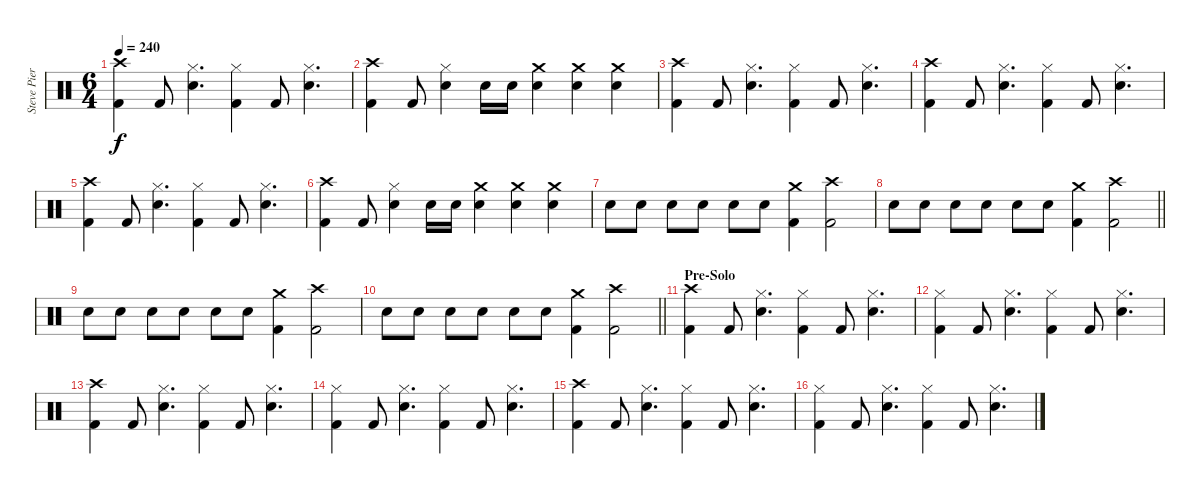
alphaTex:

\track ("Steve Pierce" "Steve Pier") {instrument percussion}
\staff {score}
\articulation defaults
\ts (6 4)
\tempo 240
\clef neutral
\ks c
("Crash high (hit)" "Kick (hit) 2").4{dy f} "Kick (hit) 2".8 ("Hi-Hat (closed)" "Snare (hit) 2").4{d} ("Hi-Hat (closed)" "Kick (hit) 2").4 "Kick (hit) 2".8 ("Hi-Hat (closed)" "Snare (hit) 2").4{d} |
("Crash high (hit)" "Kick (hit) 2").4 "Kick (hit) 2".8 ("Hi-Hat (closed)" "Snare (hit) 2").4 "Snare (hit) 2".16 "Snare (hit) 2".16 ("Crash medium (hit)" "Snare (hit) 2").4 ("Crash medium (hit)" "Snare (hit) 2").4 ("Crash medium (hit)" "Snare (hit) 2").4 |
("Crash high (hit)" "Kick (hit) 2").4 "Kick (hit) 2".8 ("Hi-Hat (closed)" "Snare (hit) 2").4{d} ("Hi-Hat (closed)" "Kick (hit) 2").4 "Kick (hit) 2".8 ("Hi-Hat (closed)" "Snare (hit) 2").4{d} |
("Crash high (hit)" "Kick (hit) 2").4 "Kick (hit) 2".8 ("Hi-Hat (closed)" "Snare (hit) 2").4{d} ("Hi-Hat (closed)" "Kick (hit) 2").4 "Kick (hit) 2".8 ("Hi-Hat (closed)" "Snare (hit) 2").4{d} |
("Crash high (hit)" "Kick (hit) 2").4 "Kick (hit) 2".8 ("Hi-Hat (closed)" "Snare (hit) 2").4{d} ("Hi-Hat (closed)" "Kick (hit) 2").4 "Kick (hit) 2".8 ("Hi-Hat (closed)" "Snare (hit) 2").4{d} |
("Crash high (hit)" "Kick (hit) 2").4 "Kick (hit) 2".8 ("Hi-Hat (closed)" "Snare (hit) 2").4 "Snare (hit) 2".16 "Snare (hit) 2".16 ("Crash medium (hit)" "Snare (hit) 2").4 ("Crash medium (hit)" "Snare (hit) 2").4 ("Crash medium (hit)" "Snare (hit) 2").4 |
"Snare (hit) 2".8 "Snare (hit) 2".8 "Snare (hit) 2".8 "Snare (hit) 2".8 "Snare (hit) 2".8 "Snare (hit) 2".8 ("Crash medium (hit)" "Kick (hit) 2").4 ("Crash high (hit)" "Kick (hit) 2").2 |
\barLineRight lightlight "Snare (hit) 2".8 "Snare (hit) 2".8 "Snare (hit) 2".8 "Snare (hit) 2".8 "Snare (hit) 2".8 "Snare (hit) 2".8
("Crash medium (hit)" "Kick (hit) 2").4 ("Crash high (hit)" "Kick (hit) 2").2 |
"Snare (hit) 2".8 "Snare (hit) 2".8 "Snare (hit) 2".8 "Snare (hit) 2".8 "Snare (hit) 2".8 "Snare (hit) 2".8 ("Crash medium (hit)" "Kick (hit) 2").4 ("Crash high (hit)" "Kick (hit) 2").2 |
\barLineRight lightlight "Snare (hit) 2".8 "Snare (hit) 2".8 "Snare (hit) 2".8 "Snare (hit) 2".8 "Snare (hit) 2".8 "Snare (hit) 2".8
("Crash medium (hit)" "Kick (hit) 2").4 ("Crash high (hit)" "Kick (hit) 2").2 |
\section ("" "Pre-Solo")
("Crash high (hit)" "Kick (hit) 2").4 "Kick (hit) 2".8 ("Hi-Hat (closed)" "Snare (hit) 2").4{d} ("Hi-Hat (closed)" "Kick (hit) 2").4 "Kick (hit) 2".8 ("Hi-Hat (closed)" "Snare (hit) 2").4{d} |
("Hi-Hat (closed)" "Kick (hit) 2").4 "Kick (hit) 2".8 ("Hi-Hat (closed)" "Snare (hit) 2").4{d} ("Hi-Hat (closed)" "Kick (hit) 2").4 "Kick (hit) 2".8 ("Hi-Hat (closed)" "Snare (hit) 2").4{d} |
("Crash high (hit)" "Kick (hit) 2").4 "Kick (hit) 2".8 ("Hi-Hat (closed)" "Snare (hit) 2").4{d} ("Hi-Hat (closed)" "Kick (hit) 2").4 "Kick (hit) 2".8 ("Hi-Hat (closed)" "Snare (hit) 2").4{d} |
("Hi-Hat (closed)" "Kick (hit) 2").4 "Kick (hit) 2".8 ("Hi-Hat (closed)" "Snare (hit) 2").4{d} ("Hi-Hat (closed)" "Kick (hit) 2").4 "Kick (hit) 2".8 ("Hi-Hat (closed)" "Snare (hit) 2").4{d} |
("Crash high (hit)" "Kick (hit) 2").4 "Kick (hit) 2".8 ("Hi-Hat (closed)" "Snare (hit) 2").4{d} ("Hi-Hat (closed)" "Kick (hit) 2").4 "Kick (hit) 2".8 ("Hi-Hat (closed)" "Snare (hit) 2").4{d} |
("Hi-Hat (closed)" "Kick (hit) 2").4 "Kick (hit) 2".8 ("Hi-Hat (closed)" "Snare (hit) 2").4{d} ("Hi-Hat (closed)" "Kick (hit) 2").4 "Kick (hit) 2".8 ("Hi-Hat (closed)" "Snare (hit) 2").4{d}
